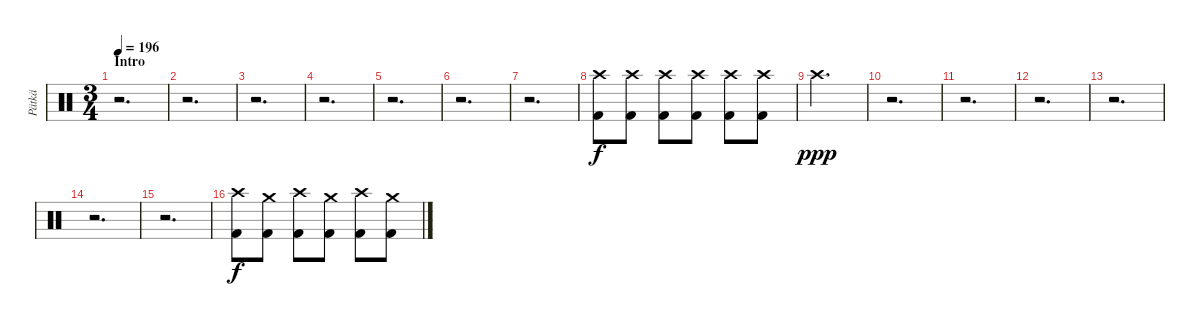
\track ("Pätkä" "Pätkä") {instrument percussion}
\staff {score}
\articulation defaults
\ts (3 4)
\section ("" "Intro")
\tempo 196
\clef neutral
\ks c
r.2{d dy f} |
r.2{d} |
r.2{d} |
r.2{d} |
r.2{d} |
r.2{d} |
r.2{d} |
("Crash high (hit)" "Kick (hit) 2").8 ("Crash high (hit)" "Kick (hit) 2").8 ("Crash high (hit)" "Kick (hit) 2").8 ("Crash high (hit)" "Kick (hit) 2").8 ("Crash high (hit)" "Kick (hit) 2").8 ("Crash high (hit)" "Kick (hit) 2").8 |
"Crash high (hit)".2{d dy ppp} |
r.2{d} |
r.2{d} |
r.2{d} |
r.2{d} |
r.2{d} |
r.2{d} |
("Crash high (hit)" "Kick (hit) 2").8{dy f} ("Crash medium (hit)" "Kick (hit) 2").8 ("Crash high (hit)" "Kick (hit) 2").8 ("Crash medium (hit)" "Kick (hit) 2").8 ("Crash high (hit)" "Kick (hit) 2").8 ("Crash medium (hit)" "Kick (hit) 2").8
